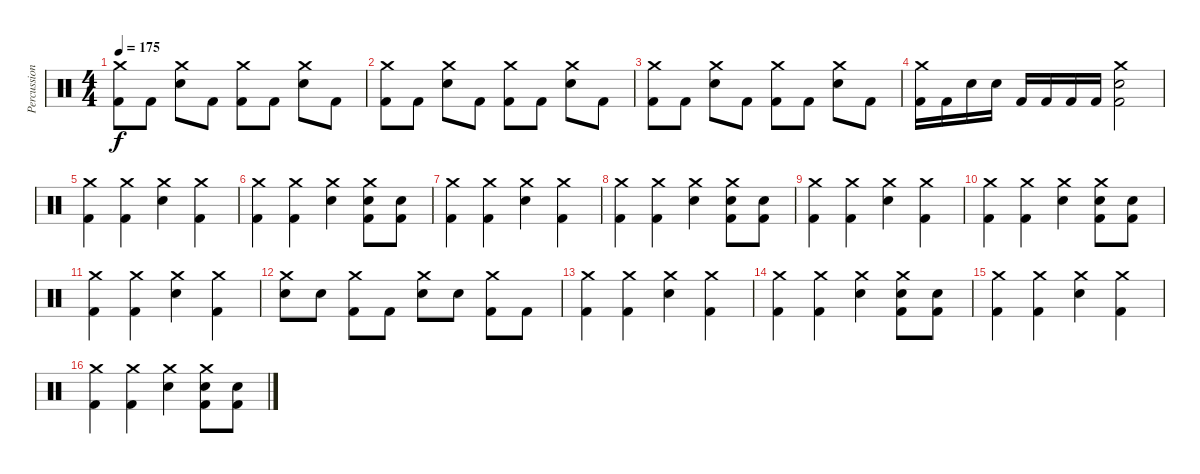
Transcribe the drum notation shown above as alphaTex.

\track ("Percussions" "Percussion") {instrument percussion}
\staff {score}
\articulation defaults
\ts (4 4)
\tempo 175
\clef neutral
\ks c
("Crash medium (hit)" "Kick (hit) 2").8{dy f} "Kick (hit) 2".8 ("Crash medium (hit)" "Snare (hit) 2").8 "Kick (hit) 2".8 ("Crash medium (hit)" "Kick (hit) 2").8 "Kick (hit) 2".8 ("Crash medium (hit)" "Snare (hit) 2").8 "Kick (hit) 2".8 |
("Crash medium (hit)" "Kick (hit) 2").8 "Kick (hit) 2".8 ("Crash medium (hit)" "Snare (hit) 2").8 "Kick (hit) 2".8 ("Crash medium (hit)" "Kick (hit) 2").8 "Kick (hit) 2".8 ("Crash medium (hit)" "Snare (hit) 2").8 "Kick (hit) 2".8 |
("Crash medium (hit)" "Kick (hit) 2").8 "Kick (hit) 2".8 ("Crash medium (hit)" "Snare (hit) 2").8 "Kick (hit) 2".8 ("Crash medium (hit)" "Kick (hit) 2").8 "Kick (hit) 2".8 ("Crash medium (hit)" "Snare (hit) 2").8 "Kick (hit) 2".8 |
("Crash medium (hit)" "Kick (hit) 2").16 "Kick (hit) 2".16 "Snare (hit) 2".16 "Snare (hit) 2".16 "Kick (hit) 2".16 "Kick (hit) 2".16 "Kick (hit) 2".16 "Kick (hit) 2".16 ("Crash medium (hit)" "Snare (hit) 2" "Kick (hit) 2").2 |
("Crash medium (hit)" "Kick (hit) 2").4 ("Crash medium (hit)" "Kick (hit) 2").4 ("Crash medium (hit)" "Snare (hit) 2").4 ("Crash medium (hit)" "Kick (hit) 2").4 |
("Crash medium (hit)" "Kick (hit) 2").4 ("Crash medium (hit)" "Kick (hit) 2").4 ("Crash medium (hit)" "Snare (hit) 2").4 ("Crash medium (hit)" "Snare (hit) 2" "Kick (hit) 2").8 ("Snare (hit) 2" "Kick (hit) 2").8 |
("Crash medium (hit)" "Kick (hit) 2").4 ("Crash medium (hit)" "Kick (hit) 2").4 ("Crash medium (hit)" "Snare (hit) 2").4 ("Crash medium (hit)" "Kick (hit) 2").4 |
("Crash medium (hit)" "Kick (hit) 2").4 ("Crash medium (hit)" "Kick (hit) 2").4 ("Crash medium (hit)" "Snare (hit) 2").4 ("Crash medium (hit)" "Snare (hit) 2" "Kick (hit) 2").8 ("Snare (hit) 2" "Kick (hit) 2").8 |
("Crash medium (hit)" "Kick (hit) 2").4 ("Crash medium (hit)" "Kick (hit) 2").4 ("Crash medium (hit)" "Snare (hit) 2").4 ("Crash medium (hit)" "Kick (hit) 2").4 |
("Crash medium (hit)" "Kick (hit) 2").4 ("Crash medium (hit)" "Kick (hit) 2").4 ("Crash medium (hit)" "Snare (hit) 2").4 ("Crash medium (hit)" "Snare (hit) 2" "Kick (hit) 2").8 ("Snare (hit) 2" "Kick (hit) 2").8 |
("Crash medium (hit)" "Kick (hit) 2").4 ("Crash medium (hit)" "Kick (hit) 2").4 ("Crash medium (hit)" "Snare (hit) 2").4 ("Crash medium (hit)" "Kick (hit) 2").4 |
("Crash medium (hit)" "Snare (hit) 2").8 "Snare (hit) 2".8 ("Crash medium (hit)" "Kick (hit) 2").8 "Kick (hit) 2".8 ("Crash medium (hit)" "Snare (hit) 2").8 "Snare (hit) 2".8 ("Crash medium (hit)" "Kick (hit) 2").8 "Kick (hit) 2".8 |
("Crash medium (hit)" "Kick (hit) 2").4 ("Crash medium (hit)" "Kick (hit) 2").4 ("Crash medium (hit)" "Snare (hit) 2").4 ("Crash medium (hit)" "Kick (hit) 2").4 |
("Crash medium (hit)" "Kick (hit) 2").4 ("Crash medium (hit)" "Kick (hit) 2").4 ("Crash medium (hit)" "Snare (hit) 2").4 ("Crash medium (hit)" "Snare (hit) 2" "Kick (hit) 2").8 ("Snare (hit) 2" "Kick (hit) 2").8 |
("Crash medium (hit)" "Kick (hit) 2").4 ("Crash medium (hit)" "Kick (hit) 2").4 ("Crash medium (hit)" "Snare (hit) 2").4 ("Crash medium (hit)" "Kick (hit) 2").4 |
("Crash medium (hit)" "Kick (hit) 2").4 ("Crash medium (hit)" "Kick (hit) 2").4 ("Crash medium (hit)" "Snare (hit) 2").4 ("Crash medium (hit)" "Snare (hit) 2" "Kick (hit) 2").8 ("Snare (hit) 2" "Kick (hit) 2").8
